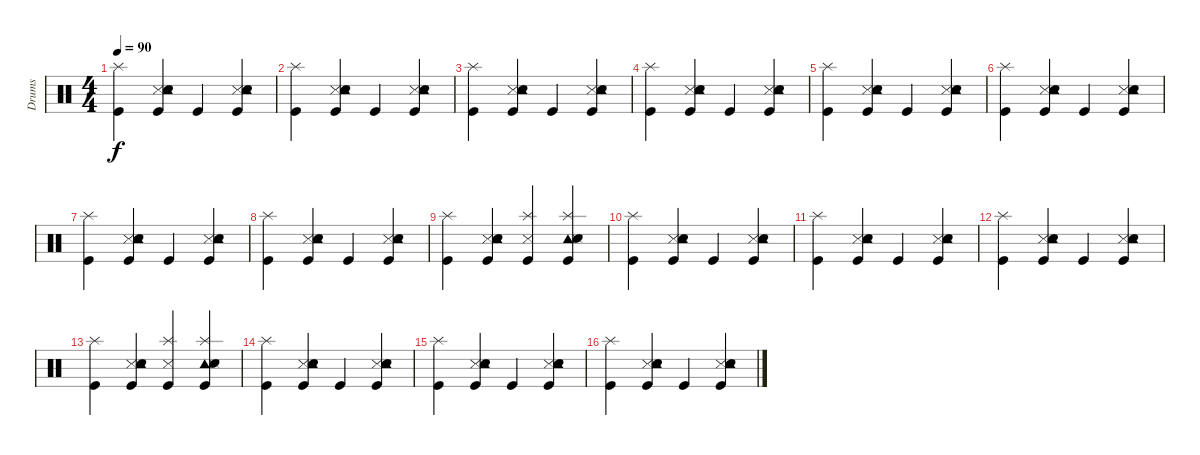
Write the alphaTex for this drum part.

\track ("Drums" "Drums") {instrument percussion}
\staff {score}
\articulation defaults
\ts (4 4)
\tempo 90
\clef neutral
\ks c
("Kick (hit)" "Splash (hit)").4{dy f} ("Metronome (hit)" "Tambourine (hit)" "Kick (hit)" "Hand Clap (hit)").4 "Kick (hit)".4 ("Metronome (hit)" "Tambourine (hit)" "Kick (hit)" "Hand Clap (hit)").4 |
("Kick (hit)" "Splash (hit)").4 ("Metronome (hit)" "Tambourine (hit)" "Kick (hit)" "Hand Clap (hit)").4 "Kick (hit)".4 ("Metronome (hit)" "Tambourine (hit)" "Kick (hit)" "Hand Clap (hit)").4 |
("Kick (hit)" "Splash (hit)").4 ("Metronome (hit)" "Tambourine (hit)" "Kick (hit)" "Hand Clap (hit)").4 "Kick (hit)".4 ("Metronome (hit)" "Tambourine (hit)" "Kick (hit)" "Hand Clap (hit)").4 |
("Kick (hit)" "Splash (hit)").4 ("Metronome (hit)" "Tambourine (hit)" "Kick (hit)" "Hand Clap (hit)").4 "Kick (hit)".4 ("Metronome (hit)" "Tambourine (hit)" "Kick (hit)" "Hand Clap (hit)").4 |
("Kick (hit)" "Splash (hit)").4 ("Metronome (hit)" "Tambourine (hit)" "Kick (hit)" "Hand Clap (hit)").4 "Kick (hit)".4 ("Metronome (hit)" "Tambourine (hit)" "Kick (hit)" "Hand Clap (hit)").4 |
("Kick (hit)" "Splash (hit)").4 ("Metronome (hit)" "Tambourine (hit)" "Kick (hit)" "Hand Clap (hit)").4 "Kick (hit)".4 ("Metronome (hit)" "Tambourine (hit)" "Kick (hit)" "Hand Clap (hit)").4 |
("Kick (hit)" "Splash (hit)").4 ("Metronome (hit)" "Tambourine (hit)" "Kick (hit)" "Hand Clap (hit)").4 "Kick (hit)".4 ("Metronome (hit)" "Tambourine (hit)" "Kick (hit)" "Hand Clap (hit)").4 |
("Kick (hit)" "Splash (hit)").4 ("Metronome (hit)" "Tambourine (hit)" "Kick (hit)" "Hand Clap (hit)").4 "Kick (hit)".4 ("Metronome (hit)" "Tambourine (hit)" "Kick (hit)" "Hand Clap (hit)").4 |
("Kick (hit)" "Splash (hit)").4 ("Metronome (hit)" "Tambourine (hit)" "Kick (hit)" "Hand Clap (hit)").4 ("Kick (hit)" "Splash (hit)" "Metronome (hit)").4 ("Splash (hit)" "Tambourine (hit)" "Kick (hit)" "Metronome (hit)" "Hand Clap (hit)").4 |
("Kick (hit)" "Splash (hit)").4 ("Metronome (hit)" "Tambourine (hit)" "Kick (hit)" "Hand Clap (hit)").4 "Kick (hit)".4 ("Metronome (hit)" "Tambourine (hit)" "Kick (hit)" "Hand Clap (hit)").4 |
("Kick (hit)" "Splash (hit)").4 ("Metronome (hit)" "Tambourine (hit)" "Kick (hit)" "Hand Clap (hit)").4 "Kick (hit)".4 ("Metronome (hit)" "Tambourine (hit)" "Kick (hit)" "Hand Clap (hit)").4 |
("Kick (hit)" "Splash (hit)").4 ("Metronome (hit)" "Tambourine (hit)" "Kick (hit)" "Hand Clap (hit)").4 "Kick (hit)".4 ("Metronome (hit)" "Tambourine (hit)" "Kick (hit)" "Hand Clap (hit)").4 |
("Kick (hit)" "Splash (hit)").4 ("Metronome (hit)" "Tambourine (hit)" "Kick (hit)" "Hand Clap (hit)").4 ("Kick (hit)" "Splash (hit)" "Metronome (hit)").4 ("Splash (hit)" "Tambourine (hit)" "Kick (hit)" "Metronome (hit)" "Hand Clap (hit)").4 |
("Kick (hit)" "Splash (hit)").4 ("Metronome (hit)" "Tambourine (hit)" "Kick (hit)" "Hand Clap (hit)").4 "Kick (hit)".4 ("Metronome (hit)" "Tambourine (hit)" "Kick (hit)" "Hand Clap (hit)").4 |
("Kick (hit)" "Splash (hit)").4 ("Metronome (hit)" "Tambourine (hit)" "Kick (hit)" "Hand Clap (hit)").4 "Kick (hit)".4 ("Metronome (hit)" "Tambourine (hit)" "Kick (hit)" "Hand Clap (hit)").4 |
("Kick (hit)" "Splash (hit)").4 ("Metronome (hit)" "Tambourine (hit)" "Kick (hit)" "Hand Clap (hit)").4 "Kick (hit)".4 ("Metronome (hit)" "Tambourine (hit)" "Kick (hit)" "Hand Clap (hit)").4
